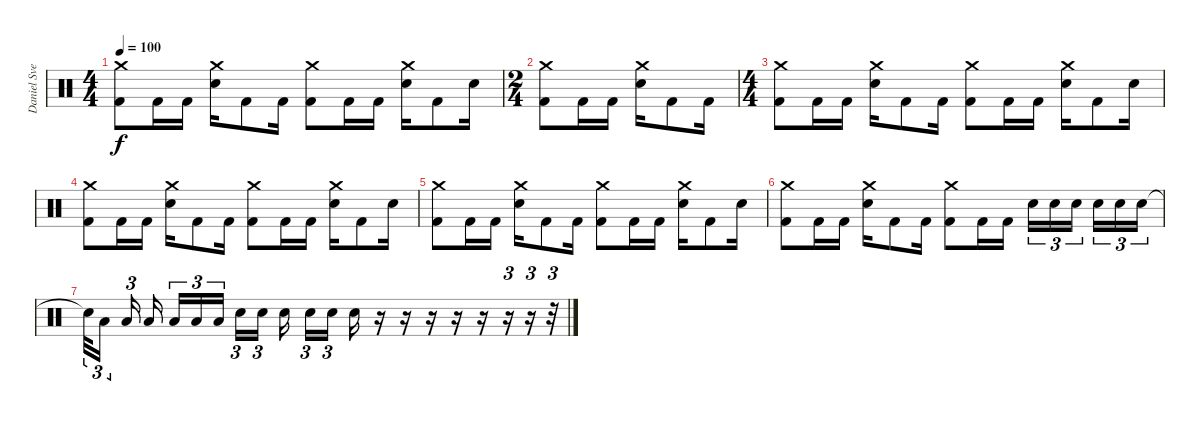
\track ("Daniel Svennson" "Daniel Sve") {instrument percussion}
\staff {score}
\articulation defaults
\ts (4 4)
\tempo 100
\clef neutral
\ks c
("Kick (hit) 2" "Crash medium (hit)").8{dy f} "Kick (hit) 2".16 "Kick (hit) 2".16 ("Snare (hit) 2" "Crash medium (hit)").16 "Kick (hit) 2".8 "Kick (hit) 2".16 ("Kick (hit) 2" "Crash medium (hit)").8 "Kick (hit) 2".16 "Kick (hit) 2".16 ("Snare (hit) 2" "Crash medium (hit)").16 "Kick (hit) 2".8 "Snare (hit) 2".16 |
\ts (2 4)
("Kick (hit) 2" "Crash medium (hit)").8 "Kick (hit) 2".16 "Kick (hit) 2".16 ("Snare (hit) 2" "Crash medium (hit)").16 "Kick (hit) 2".8 "Kick (hit) 2".16 |
\ts (4 4)
("Kick (hit) 2" "Crash medium (hit)").8 "Kick (hit) 2".16 "Kick (hit) 2".16 ("Snare (hit) 2" "Crash medium (hit)").16 "Kick (hit) 2".8 "Kick (hit) 2".16 ("Kick (hit) 2" "Crash medium (hit)").8 "Kick (hit) 2".16 "Kick (hit) 2".16 ("Snare (hit) 2" "Crash medium (hit)").16 "Kick (hit) 2".8 "Snare (hit) 2".16 |
("Kick (hit) 2" "Crash medium (hit)").8 "Kick (hit) 2".16 "Kick (hit) 2".16 ("Snare (hit) 2" "Crash medium (hit)").16 "Kick (hit) 2".8 "Kick (hit) 2".16 ("Kick (hit) 2" "Crash medium (hit)").8 "Kick (hit) 2".16 "Kick (hit) 2".16 ("Snare (hit) 2" "Crash medium (hit)").16 "Kick (hit) 2".8 "Snare (hit) 2".16 |
("Kick (hit) 2" "Crash medium (hit)").8 "Kick (hit) 2".16 "Kick (hit) 2".16 ("Snare (hit) 2" "Crash medium (hit)").16 "Kick (hit) 2".8 "Kick (hit) 2".16 ("Kick (hit) 2" "Crash medium (hit)").8 "Kick (hit) 2".16 "Kick (hit) 2".16 ("Snare (hit) 2" "Crash medium (hit)").16 "Kick (hit) 2".8 "Snare (hit) 2".16 |
("Kick (hit) 2" "Crash medium (hit)").8 "Kick (hit) 2".16 "Kick (hit) 2".16 ("Snare (hit) 2" "Crash medium (hit)").16 "Kick (hit) 2".8 "Kick (hit) 2".16 ("Kick (hit) 2" "Crash medium (hit)").8 "Kick (hit) 2".16 "Kick (hit) 2".16 "Snare (hit) 2".16{tu (3 2)} "Snare (hit) 2".16{tu (3 2)} "Snare (hit) 2".16{tu (3 2)} "Snare (hit) 2".16{tu (3 2)} "Snare (hit) 2".16{tu (3 2)} "Snare (hit) 2".16{tu (3 2)} |
"Snare (hit)"{t}.32{tu (3 2)} "Low Floor Tom (hit)".16{tu (3 2)} "Low Floor Tom (hit)".16{tu (3 2)} "Low Floor Tom (hit)".16 "Low Floor Tom (hit)".16{tu (3 2)} "Low Floor Tom (hit)".16{tu (3 2)} "Low Floor Tom (hit)".16{tu (3 2)} "Snare (hit) 2".16{tu (3 2)} "Snare (hit) 2".16{tu (3 2)} "Snare (hit) 2".16 "Snare (hit) 2".16{tu (3 2)} "Snare (hit) 2".16{tu (3 2)} "Snare (hit) 2".16 r.16 r.16 r.16 r.16 r.16 r.16{tu (3 2)} r.16{tu (3 2)} r.32{tu (3 2)}
